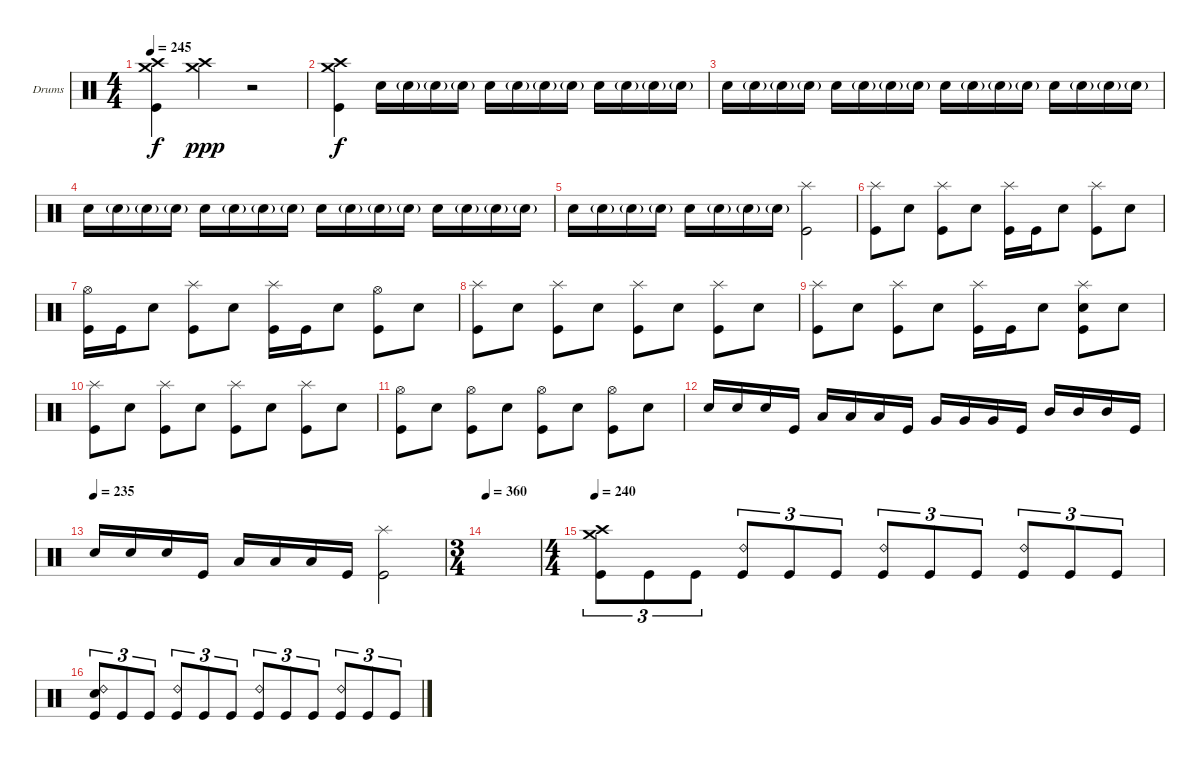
\bracketExtendMode groupsimilarinstruments
\firstSystemTrackNameOrientation horizontal
\otherSystemsTrackNameOrientation horizontal
\track ("Drumkit" "Drums") {instrument percussion}
\staff {score}
\articulation defaults
\ts (4 4)
\tempo 245
\clef neutral
\ks c
("Crash high (hit)" "Crash medium (hit)" "Kick (hit)").4{dy f} ("Crash high (hit)" "Crash medium (hit)").4{dy ppp} r.2 |
("Crash high (hit)" "Crash medium (hit)" "Kick (hit)").4{dy f} "Snare (hit) 2".16 "Snare (hit) 2"{g}.16 "Snare (hit) 2"{g}.16 "Snare (hit) 2"{g}.16 "Snare (hit) 2".16 "Snare (hit) 2"{g}.16 "Snare (hit) 2"{g}.16 "Snare (hit) 2"{g}.16 "Snare (hit) 2".16 "Snare (hit) 2"{g}.16 "Snare (hit) 2"{g}.16 "Snare (hit) 2"{g}.16 |
"Snare (hit) 2".16 "Snare (hit) 2"{g}.16 "Snare (hit) 2"{g}.16 "Snare (hit) 2"{g}.16 "Snare (hit) 2".16 "Snare (hit) 2"{g}.16 "Snare (hit) 2"{g}.16 "Snare (hit) 2"{g}.16 "Snare (hit) 2".16 "Snare (hit) 2"{g}.16 "Snare (hit) 2"{g}.16 "Snare (hit) 2"{g}.16 "Snare (hit) 2".16 "Snare (hit) 2"{g}.16 "Snare (hit) 2"{g}.16 "Snare (hit) 2"{g}.16 |
"Snare (hit) 2".16 "Snare (hit) 2"{g}.16 "Snare (hit) 2"{g}.16 "Snare (hit) 2"{g}.16 "Snare (hit) 2".16 "Snare (hit) 2"{g}.16 "Snare (hit) 2"{g}.16 "Snare (hit) 2"{g}.16 "Snare (hit) 2".16 "Snare (hit) 2"{g}.16 "Snare (hit) 2"{g}.16 "Snare (hit) 2"{g}.16 "Snare (hit) 2".16 "Snare (hit) 2"{g}.16 "Snare (hit) 2"{g}.16 "Snare (hit) 2"{g}.16 |
"Snare (hit) 2".16 "Snare (hit) 2"{g}.16 "Snare (hit) 2"{g}.16 "Snare (hit) 2"{g}.16 "Snare (hit) 2".16 "Snare (hit) 2"{g}.16 "Snare (hit) 2"{g}.16 "Snare (hit) 2"{g}.16 ("Splash (hit)" "Kick (hit)").2 |
("Splash (hit)" "Kick (hit)").8 "Snare (hit) 2".8 ("Splash (hit)" "Kick (hit)").8 "Snare (hit) 2".8 ("Splash (hit)" "Kick (hit)").16 "Kick (hit)".16 "Snare (hit) 2".8 ("Splash (hit)" "Kick (hit)").8 "Snare (hit) 2".8 |
("Hi-Hat (open)" "Kick (hit)").16 "Kick (hit)".16 "Snare (hit) 2".8 ("Splash (hit)" "Kick (hit)").8 "Snare (hit) 2".8 ("Splash (hit)" "Kick (hit)").16 "Kick (hit)".16 "Snare (hit) 2".8 ("Hi-Hat (open)" "Kick (hit)").8 "Snare (hit) 2".8 |
("Splash (hit)" "Kick (hit)").8 "Snare (hit) 2".8 ("Splash (hit)" "Kick (hit)").8 "Snare (hit) 2".8 ("Splash (hit)" "Kick (hit)").8 "Snare (hit) 2".8 ("Splash (hit)" "Kick (hit)").8 "Snare (hit) 2".8 |
("Splash (hit)" "Kick (hit)").8 "Snare (hit) 2".8 ("Splash (hit)" "Kick (hit)").8 "Snare (hit) 2".8 ("Splash (hit)" "Kick (hit)").16 "Kick (hit)".16 "Snare (hit) 2".8 ("Splash (hit)" "Snare (hit) 2" "Kick (hit)").8 "Snare (hit) 2".8 |
("Splash (hit)" "Kick (hit)").8 "Snare (hit) 2".8 ("Splash (hit)" "Kick (hit)").8 "Snare (hit) 2".8 ("Splash (hit)" "Kick (hit)").8 "Snare (hit) 2".8 ("Splash (hit)" "Kick (hit)").8 "Snare (hit) 2".8 |
("Hi-Hat (open)" "Kick (hit)").8 "Snare (hit) 2".8 ("Hi-Hat (open)" "Kick (hit)").8 "Snare (hit) 2".8 ("Hi-Hat (open)" "Kick (hit)").8 "Snare (hit) 2".8 ("Hi-Hat (open)" "Kick (hit)").8 "Snare (hit) 2".8 |
"Snare (hit) 2".16 "Snare (hit) 2".16 "Snare (hit) 2".16 "Kick (hit)".16 "Low Tom (hit)".16 "Low Tom (hit)".16 "Low Tom (hit)".16 "Kick (hit)".16 "Very Low Tom (hit)".16 "Very Low Tom (hit)".16 "Very Low Tom (hit)".16 "Kick (hit)".16 "Mid Tom (hit)".16 "Mid Tom (hit)".16 "Mid Tom (hit)".16 "Kick (hit)".16 |
\tempo (235)
"Snare (hit) 2".16 "Snare (hit) 2".16 "Snare (hit) 2".16 "Kick (hit)".16 "Low Tom (hit)".16 "Low Tom (hit)".16 "Low Tom (hit)".16 "Kick (hit)".16 ("Splash (hit)" "Kick (hit)").2 |
\ts (3 4)
\tempo 360
|
\ts (4 4)
\tempo 240
("Crash high (hit)" "Crash medium (hit)" "Kick (hit)").8{tu (3 2)} "Kick (hit)".8{tu (3 2)} "Kick (hit)".8{tu (3 2)} ("Ride (bell) 2" "Kick (hit)").8{tu (3 2)} "Kick (hit)".8{tu (3 2)} "Kick (hit)".8{tu (3 2)} ("Ride (bell) 2" "Kick (hit)").8{tu (3 2)} "Kick (hit)".8{tu (3 2)} "Kick (hit)".8{tu (3 2)} ("Ride (bell) 2" "Kick (hit)").8{tu (3 2)} "Kick (hit)".8{tu (3 2)} "Kick (hit)".8{tu (3 2)} |
("Ride (bell) 2" "Snare (hit) 2" "Kick (hit)").8{tu (3 2)} "Kick (hit)".8{tu (3 2)} "Kick (hit)".8{tu (3 2)} ("Ride (bell) 2" "Kick (hit)").8{tu (3 2)} "Kick (hit)".8{tu (3 2)} "Kick (hit)".8{tu (3 2)} ("Ride (bell) 2" "Kick (hit)").8{tu (3 2)} "Kick (hit)".8{tu (3 2)} "Kick (hit)".8{tu (3 2)} ("Ride (bell) 2" "Kick (hit)").8{tu (3 2)} "Kick (hit)".8{tu (3 2)} "Kick (hit)".8{tu (3 2)}
